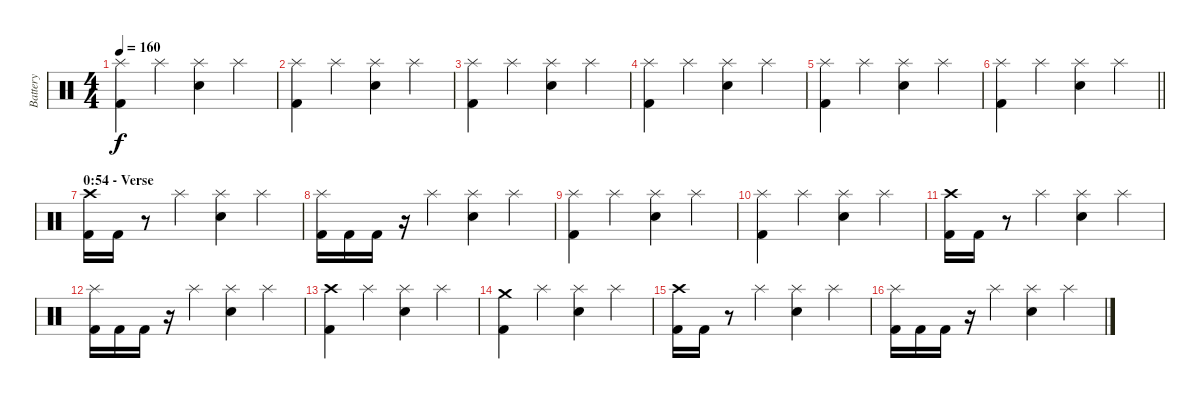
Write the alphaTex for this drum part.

\track ("Battery" "Battery") {instrument percussion}
\staff {score}
\articulation defaults
\ts (4 4)
\tempo 160
\clef neutral
\ks c
("Splash (hit)" "Kick (hit) 2").4{dy f} "Splash (hit)".4 ("Splash (hit)" "Electric Snare (hit)").4 "Splash (hit)".4 |
("Splash (hit)" "Kick (hit) 2").4 "Splash (hit)".4 ("Splash (hit)" "Electric Snare (hit)").4 "Splash (hit)".4 |
("Splash (hit)" "Kick (hit) 2").4 "Splash (hit)".4 ("Splash (hit)" "Electric Snare (hit)").4 "Splash (hit)".4 |
("Splash (hit)" "Kick (hit) 2").4 "Splash (hit)".4 ("Splash (hit)" "Electric Snare (hit)").4 "Splash (hit)".4 |
("Splash (hit)" "Kick (hit) 2").4 "Splash (hit)".4 ("Splash (hit)" "Electric Snare (hit)").4 "Splash (hit)".4 |
\barLineRight lightlight
("Splash (hit)" "Kick (hit) 2").4 "Splash (hit)".4 ("Splash (hit)" "Electric Snare (hit)").4 "Splash (hit)".4 |
\section ("" "0:54 - Verse")
("Crash high (hit)" "Kick (hit) 2").16 "Kick (hit) 2".16 r.8 "Splash (hit)".4 ("Splash (hit)" "Electric Snare (hit)").4 "Splash (hit)".4 |
("Splash (hit)" "Kick (hit) 2").16 "Kick (hit) 2".16 "Kick (hit) 2".16 r.16 "Splash (hit)".4 ("Splash (hit)" "Electric Snare (hit)").4 "Splash (hit)".4 |
("Splash (hit)" "Kick (hit) 2").4 "Splash (hit)".4 ("Splash (hit)" "Electric Snare (hit)").4 "Splash (hit)".4 |
("Splash (hit)" "Kick (hit) 2").4 "Splash (hit)".4 ("Splash (hit)" "Electric Snare (hit)").4 "Splash (hit)".4 |
("Crash high (hit)" "Kick (hit) 2").16 "Kick (hit) 2".16 r.8 "Splash (hit)".4 ("Splash (hit)" "Electric Snare (hit)").4 "Splash (hit)".4 |
("Splash (hit)" "Kick (hit) 2").16 "Kick (hit) 2".16 "Kick (hit) 2".16 r.16 "Splash (hit)".4 ("Splash (hit)" "Electric Snare (hit)").4 "Splash (hit)".4 |
("Crash high (hit)" "Kick (hit) 2").4 "Splash (hit)".4 ("Splash (hit)" "Electric Snare (hit)").4 "Splash (hit)".4 |
("Crash medium (hit)" "Kick (hit) 2").4 "Splash (hit)".4 ("Splash (hit)" "Electric Snare (hit)").4 "Splash (hit)".4 |
("Crash high (hit)" "Kick (hit) 2").16 "Kick (hit) 2".16 r.8 "Splash (hit)".4 ("Splash (hit)" "Electric Snare (hit)").4 "Splash (hit)".4 |
("Splash (hit)" "Kick (hit) 2").16 "Kick (hit) 2".16 "Kick (hit) 2".16 r.16 "Splash (hit)".4 ("Splash (hit)" "Electric Snare (hit)").4 "Splash (hit)".4
